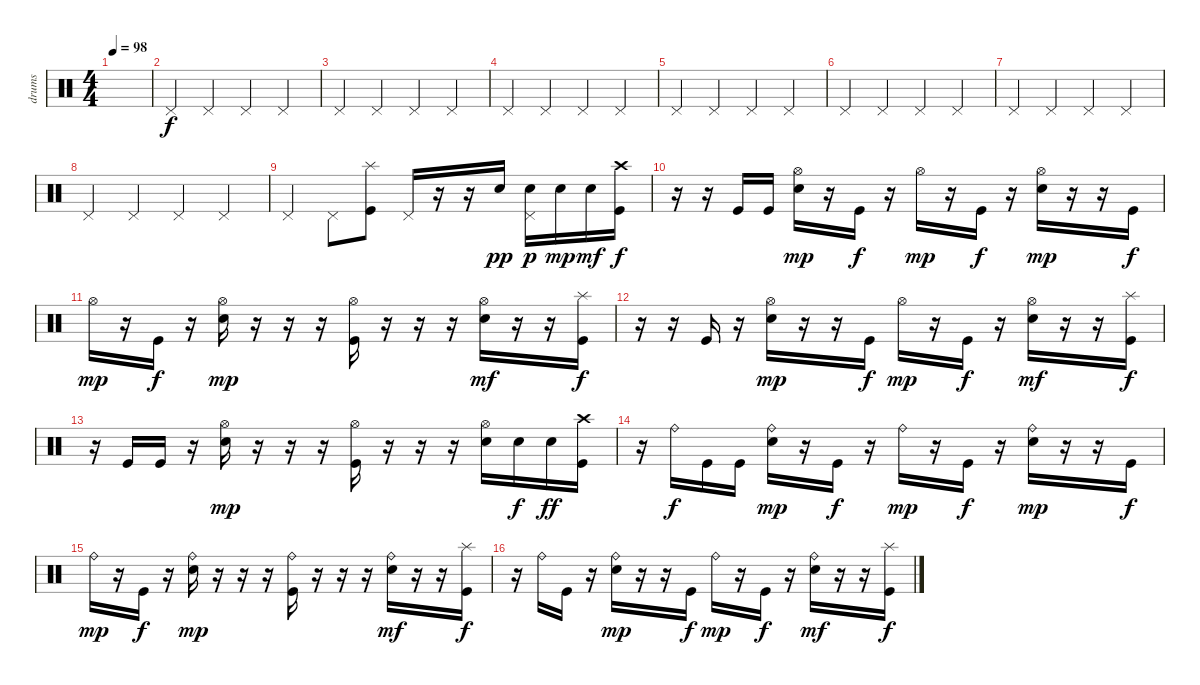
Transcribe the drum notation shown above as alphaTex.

\track ("drums" "drums") {instrument percussion}
\staff {score}
\articulation defaults
\ts (4 4)
\tempo 98
\clef neutral
\ks c
|
"Pedal Hi-Hat (hit)".4 "Pedal Hi-Hat (hit)".4 "Pedal Hi-Hat (hit)".4 "Pedal Hi-Hat (hit)".4 |
"Pedal Hi-Hat (hit)".4 "Pedal Hi-Hat (hit)".4 "Pedal Hi-Hat (hit)".4 "Pedal Hi-Hat (hit)".4 |
"Pedal Hi-Hat (hit)".4 "Pedal Hi-Hat (hit)".4 "Pedal Hi-Hat (hit)".4 "Pedal Hi-Hat (hit)".4 |
"Pedal Hi-Hat (hit)".4 "Pedal Hi-Hat (hit)".4 "Pedal Hi-Hat (hit)".4 "Pedal Hi-Hat (hit)".4 |
"Pedal Hi-Hat (hit)".4 "Pedal Hi-Hat (hit)".4 "Pedal Hi-Hat (hit)".4 "Pedal Hi-Hat (hit)".4 |
"Pedal Hi-Hat (hit)".4 "Pedal Hi-Hat (hit)".4 "Pedal Hi-Hat (hit)".4 "Pedal Hi-Hat (hit)".4 |
"Pedal Hi-Hat (hit)".4 "Pedal Hi-Hat (hit)".4 "Pedal Hi-Hat (hit)".4 "Pedal Hi-Hat (hit)".4 |
"Pedal Hi-Hat (hit)".4 "Pedal Hi-Hat (hit)".8 ("Splash (hit)" "Kick (hit)").8 "Pedal Hi-Hat (hit)".16 r.16 r.16 "Electric Snare (hit)".16{dy pp} ("Electric Snare (hit)" "Pedal Hi-Hat (hit)").16{dy p} "Electric Snare (hit)".16{dy mp} "Electric Snare (hit)".16{dy mf} ("Crash high (hit)" "Kick (hit)").16{dy f} |
r.16 r.16 "Kick (hit)".16 "Kick (hit)".16 ("Hi-Hat (open)" "Electric Snare (hit)").16{dy mp} r.16 "Kick (hit)".16{dy f} r.16 "Hi-Hat (open)".16{dy mp} r.16 "Kick (hit)".16{dy f} r.16 ("Hi-Hat (open)" "Electric Snare (hit)").16{dy mp} r.16 r.16 "Kick (hit)".16{dy f} |
"Hi-Hat (open)".16{dy mp} r.16 "Kick (hit)".16{dy f} r.16 ("Hi-Hat (open)" "Electric Snare (hit)").16{dy mp} r.16 r.16 r.16 ("Hi-Hat (open)" "Kick (hit)").16 r.16 r.16 r.16 ("Hi-Hat (open)" "Electric Snare (hit)").16{dy mf} r.16 r.16 ("Splash (hit)" "Kick (hit)").16{dy f} |
r.16 r.16 "Kick (hit)".16 r.16 ("Hi-Hat (open)" "Electric Snare (hit)").16{dy mp} r.16 r.16 "Kick (hit)".16{dy f} "Hi-Hat (open)".16{dy mp} r.16 "Kick (hit)".16{dy f} r.16 ("Hi-Hat (open)" "Electric Snare (hit)").16{dy mf} r.16 r.16 ("Splash (hit)" "Kick (hit)").16{dy f} |
r.16 "Kick (hit)".16 "Kick (hit)".16 r.16 ("Hi-Hat (open)" "Electric Snare (hit)").16{dy mp} r.16 r.16 r.16 ("Hi-Hat (open)" "Kick (hit)").16 r.16 r.16 r.16 ("Hi-Hat (open)" "Electric Snare (hit)").16 "Electric Snare (hit)".16{dy f} "Electric Snare (hit)".16{dy ff} ("Crash high (hit)" "Kick (hit)").16 |
r.16 "Ride (bell)".16{dy f} "Kick (hit)".16 "Kick (hit)".16 ("Ride (bell)" "Electric Snare (hit)").16{dy mp} r.16 "Kick (hit)".16{dy f} r.16 "Ride (bell)".16{dy mp} r.16 "Kick (hit)".16{dy f} r.16 ("Ride (bell)" "Electric Snare (hit)").16{dy mp} r.16 r.16 "Kick (hit)".16{dy f} |
"Ride (bell)".16{dy mp} r.16 "Kick (hit)".16{dy f} r.16 ("Ride (bell)" "Electric Snare (hit)").16{dy mp} r.16 r.16 r.16 ("Ride (bell)" "Kick (hit)").16 r.16 r.16 r.16 ("Ride (bell)" "Electric Snare (hit)").16{dy mf} r.16 r.16 ("Splash (hit)" "Kick (hit)").16{dy f} |
r.16 "Ride (bell)".16 "Kick (hit)".16 r.16 ("Ride (bell)" "Electric Snare (hit)").16{dy mp} r.16 r.16 "Kick (hit)".16{dy f} "Ride (bell)".16{dy mp} r.16 "Kick (hit)".16{dy f} r.16 ("Ride (bell)" "Electric Snare (hit)").16{dy mf} r.16 r.16 ("Splash (hit)" "Kick (hit)").16{dy f}
